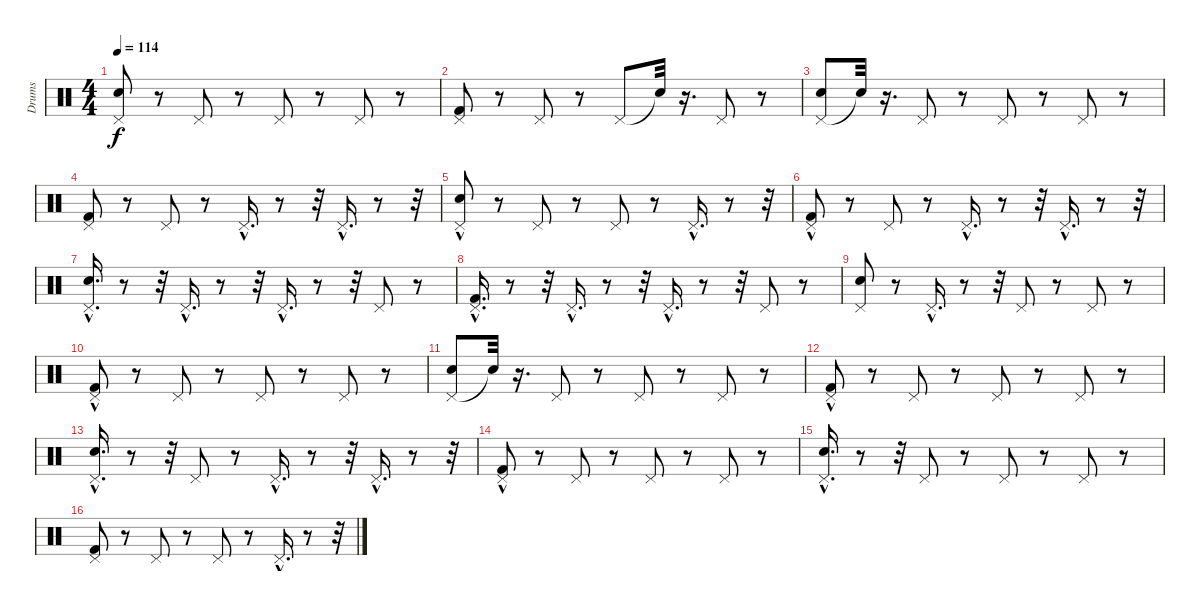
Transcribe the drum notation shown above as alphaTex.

\track ("Drums" "Drums") {instrument percussion}
\staff {score}
\articulation defaults
\ts (4 4)
\tempo 114
\clef neutral
\ks c
("Pedal Hi-Hat (hit)" "Snare (hit) 2").8{dy f} r.8 "Pedal Hi-Hat (hit)".8 r.8 "Pedal Hi-Hat (hit)".8 r.8 "Pedal Hi-Hat (hit)".8 r.8 |
("Pedal Hi-Hat (hit)" "Kick (hit) 2").8 r.8 "Pedal Hi-Hat (hit)".8 r.8 "Pedal Hi-Hat (hit)".8 "Snare (hit)"{t}.32 r.16{d} "Pedal Hi-Hat (hit)".8 r.8 |
("Pedal Hi-Hat (hit)" "Snare (hit) 2").8 "Snare (hit)"{t}.32 r.16{d} "Pedal Hi-Hat (hit)".8 r.8 "Pedal Hi-Hat (hit)".8 r.8 "Pedal Hi-Hat (hit)".8 r.8 |
("Pedal Hi-Hat (hit)" "Kick (hit) 2").8 r.8 "Pedal Hi-Hat (hit)".8 r.8 "Pedal Hi-Hat (hit)"{hac}.16{d} r.8 r.32 "Pedal Hi-Hat (hit)"{hac}.16{d} r.8 r.32 |
("Pedal Hi-Hat (hit)"{hac} "Snare (hit) 2").8 r.8 "Pedal Hi-Hat (hit)".8 r.8 "Pedal Hi-Hat (hit)".8 r.8 "Pedal Hi-Hat (hit)"{hac}.16{d} r.8 r.32 |
("Pedal Hi-Hat (hit)"{hac} "Kick (hit) 2").8 r.8 "Pedal Hi-Hat (hit)".8 r.8 "Pedal Hi-Hat (hit)"{hac}.16{d} r.8 r.32 "Pedal Hi-Hat (hit)"{hac}.16{d} r.8 r.32 |
("Snare (hit) 2"{hac} "Pedal Hi-Hat (hit)"{hac}).16{d} r.8 r.32 "Pedal Hi-Hat (hit)"{hac}.16{d} r.8 r.32 "Pedal Hi-Hat (hit)"{hac}.16{d} r.8 r.32 "Pedal Hi-Hat (hit)".8 r.8 |
("Pedal Hi-Hat (hit)"{hac} "Kick (hit) 2"{hac}).16{d} r.8 r.32 "Pedal Hi-Hat (hit)"{hac}.16{d} r.8 r.32 "Pedal Hi-Hat (hit)"{hac}.16{d} r.8 r.32 "Pedal Hi-Hat (hit)".8 r.8 |
("Pedal Hi-Hat (hit)" "Snare (hit) 2").8 r.8 "Pedal Hi-Hat (hit)"{hac}.16{d} r.8 r.32 "Pedal Hi-Hat (hit)".8 r.8 "Pedal Hi-Hat (hit)".8 r.8 |
("Kick (hit) 2" "Pedal Hi-Hat (hit)"{hac}).8 r.8 "Pedal Hi-Hat (hit)".8 r.8 "Pedal Hi-Hat (hit)".8 r.8 "Pedal Hi-Hat (hit)".8 r.8 |
("Pedal Hi-Hat (hit)" "Snare (hit) 2").8 "Snare (hit)"{t}.32 r.16{d} "Pedal Hi-Hat (hit)".8 r.8 "Pedal Hi-Hat (hit)".8 r.8 "Pedal Hi-Hat (hit)".8 r.8 |
("Pedal Hi-Hat (hit)"{hac} "Kick (hit) 2").8 r.8 "Pedal Hi-Hat (hit)".8 r.8 "Pedal Hi-Hat (hit)".8 r.8 "Pedal Hi-Hat (hit)".8 r.8 |
("Pedal Hi-Hat (hit)"{hac} "Snare (hit) 2"{hac}).16{d} r.8 r.32 "Pedal Hi-Hat (hit)".8 r.8 "Pedal Hi-Hat (hit)"{hac}.16{d} r.8 r.32 "Pedal Hi-Hat (hit)"{hac}.16{d} r.8 r.32 |
("Pedal Hi-Hat (hit)"{hac} "Kick (hit) 2").8 r.8 "Pedal Hi-Hat (hit)".8 r.8 "Pedal Hi-Hat (hit)".8 r.8 "Pedal Hi-Hat (hit)".8 r.8 |
("Pedal Hi-Hat (hit)"{hac} "Snare (hit) 2"{hac}).16{d} r.8 r.32 "Pedal Hi-Hat (hit)".8 r.8 "Pedal Hi-Hat (hit)".8 r.8 "Pedal Hi-Hat (hit)".8 r.8 |
("Pedal Hi-Hat (hit)" "Kick (hit) 2").8 r.8 "Pedal Hi-Hat (hit)".8 r.8 "Pedal Hi-Hat (hit)".8 r.8 "Pedal Hi-Hat (hit)"{hac}.16{d} r.8 r.32
